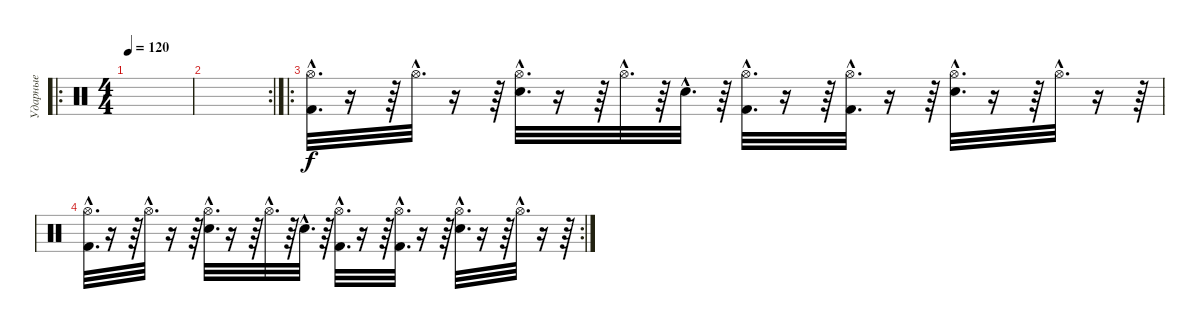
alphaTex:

\track ("Ударные " "Ударные ") {instrument percussion}
\staff {score}
\articulation defaults
\ro
\ts (4 4)
\tempo 120
\clef neutral
\ks c
|
\rc 2
|
\ro
("Hi-Hat (open)"{hac} "Kick (hit) 2"{hac}).32{d} r.16 r.64 "Hi-Hat (open)"{hac}.32{d} r.16 r.64 ("Hi-Hat (open)"{hac} "Electric Snare (hit)"{hac}).32{d} r.16 r.64 "Hi-Hat (open)"{hac}.32{d} r.64 "Electric Snare (hit)"{hac}.32{d} r.64 ("Hi-Hat (open)"{hac} "Kick (hit) 2"{hac}).32{d} r.16 r.64 ("Hi-Hat (open)"{hac} "Kick (hit) 2"{hac}).32{d} r.16 r.64 ("Hi-Hat (open)"{hac} "Electric Snare (hit)"{hac}).32{d} r.16 r.64 "Hi-Hat (open)"{hac}.32{d} r.16 r.64 |
\rc 2
("Hi-Hat (open)"{hac} "Kick (hit) 2"{hac}).32{d} r.16 r.64 "Hi-Hat (open)"{hac}.32{d} r.16 r.64 ("Hi-Hat (open)"{hac} "Electric Snare (hit)"{hac}).32{d} r.16 r.64 "Hi-Hat (open)"{hac}.32{d} r.64 "Electric Snare (hit)"{hac}.32{d} r.64 ("Hi-Hat (open)"{hac} "Kick (hit) 2"{hac}).32{d} r.16 r.64 ("Hi-Hat (open)"{hac} "Kick (hit) 2"{hac}).32{d} r.16 r.64 ("Hi-Hat (open)"{hac} "Electric Snare (hit)"{hac}).32{d} r.16 r.64 "Hi-Hat (open)"{hac}.32{d} r.16 r.64
